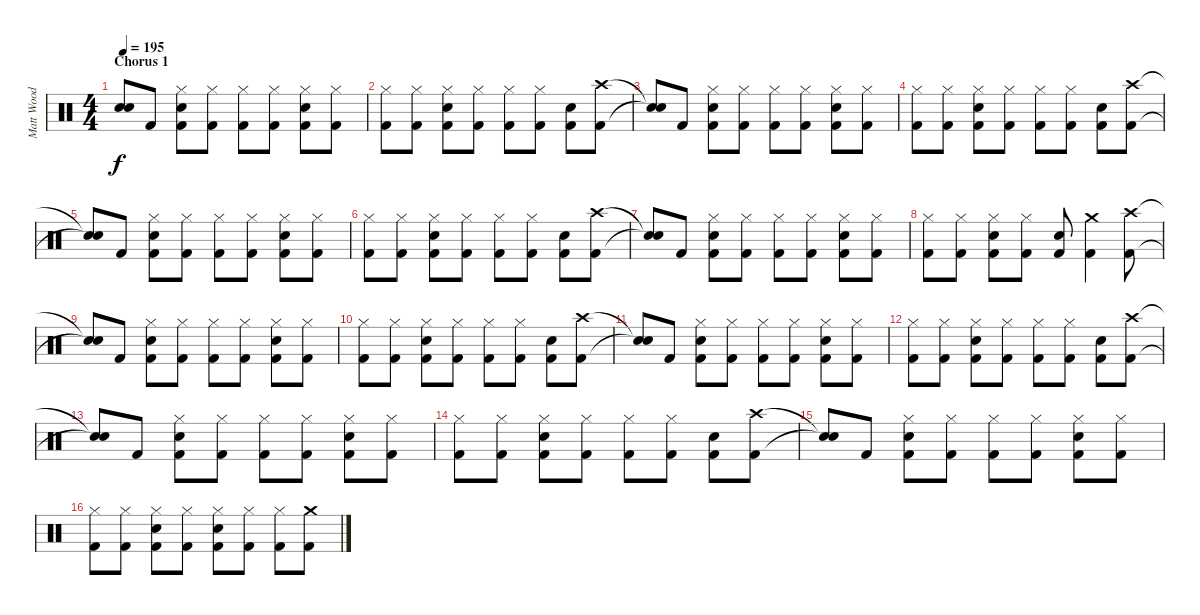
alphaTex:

\track ("Matt Wood" "Matt Wood") {instrument percussion}
\staff {score}
\articulation defaults
\ts (4 4)
\section ("" "Chorus 1")
\tempo 195
\clef neutral
\ks c
("Snare (hit)"{t} "Snare (hit)"{t}).8{dy f} "Kick (hit) 2".8 ("Hi-Hat (closed)" "Snare (hit) 2" "Kick (hit) 2").8 ("Hi-Hat (closed)" "Kick (hit) 2").8 ("Hi-Hat (closed)" "Kick (hit) 2").8 ("Hi-Hat (closed)" "Kick (hit) 2").8 ("Hi-Hat (closed)" "Snare (hit) 2" "Kick (hit) 2").8 ("Hi-Hat (closed)" "Kick (hit) 2").8 |
("Hi-Hat (closed)" "Kick (hit) 2").8 ("Hi-Hat (closed)" "Kick (hit) 2").8 ("Hi-Hat (closed)" "Snare (hit) 2" "Kick (hit) 2").8 ("Hi-Hat (closed)" "Kick (hit) 2").8 ("Hi-Hat (closed)" "Kick (hit) 2").8 ("Hi-Hat (closed)" "Kick (hit) 2").8 ("Snare (hit) 2" "Kick (hit) 2").8 ("Crash high (hit)" "Kick (hit) 2").8 |
("Snare (hit)"{t} "Snare (hit)"{t}).8 "Kick (hit) 2".8 ("Hi-Hat (closed)" "Snare (hit) 2" "Kick (hit) 2").8 ("Hi-Hat (closed)" "Kick (hit) 2").8 ("Hi-Hat (closed)" "Kick (hit) 2").8 ("Hi-Hat (closed)" "Kick (hit) 2").8 ("Hi-Hat (closed)" "Snare (hit) 2" "Kick (hit) 2").8 ("Hi-Hat (closed)" "Kick (hit) 2").8 |
("Hi-Hat (closed)" "Kick (hit) 2").8 ("Hi-Hat (closed)" "Kick (hit) 2").8 ("Hi-Hat (closed)" "Snare (hit) 2" "Kick (hit) 2").8 ("Hi-Hat (closed)" "Kick (hit) 2").8 ("Hi-Hat (closed)" "Kick (hit) 2").8 ("Hi-Hat (closed)" "Kick (hit) 2").8 ("Snare (hit) 2" "Kick (hit) 2").8 ("Crash high (hit)" "Kick (hit) 2").8 |
("Snare (hit)"{t} "Snare (hit)"{t}).8 "Kick (hit) 2".8 ("Hi-Hat (closed)" "Snare (hit) 2" "Kick (hit) 2").8 ("Hi-Hat (closed)" "Kick (hit) 2").8 ("Hi-Hat (closed)" "Kick (hit) 2").8 ("Hi-Hat (closed)" "Kick (hit) 2").8 ("Hi-Hat (closed)" "Snare (hit) 2" "Kick (hit) 2").8 ("Hi-Hat (closed)" "Kick (hit) 2").8 |
("Hi-Hat (closed)" "Kick (hit) 2").8 ("Hi-Hat (closed)" "Kick (hit) 2").8 ("Hi-Hat (closed)" "Snare (hit) 2" "Kick (hit) 2").8 ("Hi-Hat (closed)" "Kick (hit) 2").8 ("Hi-Hat (closed)" "Kick (hit) 2").8 ("Hi-Hat (closed)" "Kick (hit) 2").8 ("Snare (hit) 2" "Kick (hit) 2").8 ("Crash high (hit)" "Kick (hit) 2").8 |
("Snare (hit)"{t} "Snare (hit)"{t}).8 "Kick (hit) 2".8 ("Hi-Hat (closed)" "Snare (hit) 2" "Kick (hit) 2").8 ("Hi-Hat (closed)" "Kick (hit) 2").8 ("Hi-Hat (closed)" "Kick (hit) 2").8 ("Hi-Hat (closed)" "Kick (hit) 2").8 ("Hi-Hat (closed)" "Snare (hit) 2" "Kick (hit) 2").8 ("Hi-Hat (closed)" "Kick (hit) 2").8 |
("Hi-Hat (closed)" "Kick (hit) 2").8 ("Hi-Hat (closed)" "Kick (hit) 2").8 ("Hi-Hat (closed)" "Snare (hit) 2" "Kick (hit) 2").8 ("Hi-Hat (closed)" "Kick (hit) 2").8 ("Snare (hit) 2" "Kick (hit) 2").8 ("Crash medium (hit)" "Kick (hit) 2").4 ("Crash high (hit)" "Kick (hit) 2").8 |
("Snare (hit)"{t} "Snare (hit)"{t}).8 "Kick (hit) 2".8 ("Hi-Hat (closed)" "Snare (hit) 2" "Kick (hit) 2").8 ("Hi-Hat (closed)" "Kick (hit) 2").8 ("Hi-Hat (closed)" "Kick (hit) 2").8 ("Hi-Hat (closed)" "Kick (hit) 2").8 ("Hi-Hat (closed)" "Snare (hit) 2" "Kick (hit) 2").8 ("Hi-Hat (closed)" "Kick (hit) 2").8 |
("Hi-Hat (closed)" "Kick (hit) 2").8 ("Hi-Hat (closed)" "Kick (hit) 2").8 ("Hi-Hat (closed)" "Snare (hit) 2" "Kick (hit) 2").8 ("Hi-Hat (closed)" "Kick (hit) 2").8 ("Hi-Hat (closed)" "Kick (hit) 2").8 ("Hi-Hat (closed)" "Kick (hit) 2").8 ("Snare (hit) 2" "Kick (hit) 2").8 ("Crash high (hit)" "Kick (hit) 2").8 |
("Snare (hit)"{t} "Snare (hit)"{t}).8 "Kick (hit) 2".8 ("Hi-Hat (closed)" "Snare (hit) 2" "Kick (hit) 2").8 ("Hi-Hat (closed)" "Kick (hit) 2").8 ("Hi-Hat (closed)" "Kick (hit) 2").8 ("Hi-Hat (closed)" "Kick (hit) 2").8 ("Hi-Hat (closed)" "Snare (hit) 2" "Kick (hit) 2").8 ("Hi-Hat (closed)" "Kick (hit) 2").8 |
("Hi-Hat (closed)" "Kick (hit) 2").8 ("Hi-Hat (closed)" "Kick (hit) 2").8 ("Hi-Hat (closed)" "Snare (hit) 2" "Kick (hit) 2").8 ("Hi-Hat (closed)" "Kick (hit) 2").8 ("Hi-Hat (closed)" "Kick (hit) 2").8 ("Hi-Hat (closed)" "Kick (hit) 2").8 ("Snare (hit) 2" "Kick (hit) 2").8 ("Crash high (hit)" "Kick (hit) 2").8 |
("Snare (hit)"{t} "Snare (hit)"{t}).8 "Kick (hit) 2".8 ("Hi-Hat (closed)" "Snare (hit) 2" "Kick (hit) 2").8 ("Hi-Hat (closed)" "Kick (hit) 2").8 ("Hi-Hat (closed)" "Kick (hit) 2").8 ("Hi-Hat (closed)" "Kick (hit) 2").8 ("Hi-Hat (closed)" "Snare (hit) 2" "Kick (hit) 2").8 ("Hi-Hat (closed)" "Kick (hit) 2").8 |
("Hi-Hat (closed)" "Kick (hit) 2").8 ("Hi-Hat (closed)" "Kick (hit) 2").8 ("Hi-Hat (closed)" "Snare (hit) 2" "Kick (hit) 2").8 ("Hi-Hat (closed)" "Kick (hit) 2").8 ("Hi-Hat (closed)" "Kick (hit) 2").8 ("Hi-Hat (closed)" "Kick (hit) 2").8 ("Snare (hit) 2" "Kick (hit) 2").8 ("Crash high (hit)" "Kick (hit) 2").8 |
("Snare (hit)"{t} "Snare (hit)"{t}).8 "Kick (hit) 2".8 ("Hi-Hat (closed)" "Snare (hit) 2" "Kick (hit) 2").8 ("Hi-Hat (closed)" "Kick (hit) 2").8 ("Hi-Hat (closed)" "Kick (hit) 2").8 ("Hi-Hat (closed)" "Kick (hit) 2").8 ("Hi-Hat (closed)" "Snare (hit) 2" "Kick (hit) 2").8 ("Hi-Hat (closed)" "Kick (hit) 2").8 |
("Hi-Hat (closed)" "Kick (hit) 2").8 ("Hi-Hat (closed)" "Kick (hit) 2").8 ("Hi-Hat (closed)" "Snare (hit) 2" "Kick (hit) 2").8 ("Hi-Hat (closed)" "Kick (hit) 2").8 ("Hi-Hat (closed)" "Snare (hit) 2" "Kick (hit) 2").8 ("Hi-Hat (closed)" "Kick (hit) 2").8 ("Hi-Hat (closed)" "Kick (hit) 2").8 ("Crash medium (hit)" "Kick (hit) 2").8
